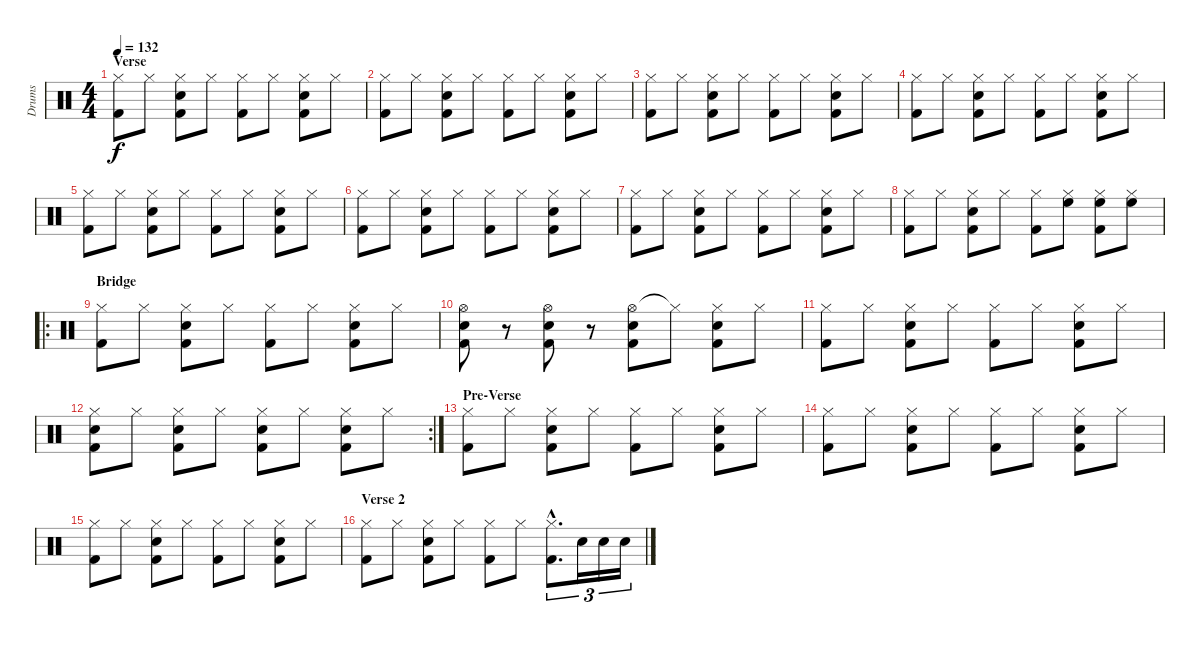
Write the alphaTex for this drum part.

\track ("Drums" "Drums") {instrument percussion}
\staff {score}
\articulation defaults
\ts (4 4)
\section ("" "Verse")
\tempo 132
\clef neutral
\ks c
("Hi-Hat (closed)" "Kick (hit) 2").8{dy f} "Hi-Hat (closed)".8 ("Hi-Hat (closed)" "Snare (hit) 2" "Kick (hit) 2").8 "Hi-Hat (closed)".8 ("Hi-Hat (closed)" "Kick (hit) 2").8 "Hi-Hat (closed)".8 ("Hi-Hat (closed)" "Snare (hit) 2" "Kick (hit) 2").8 "Hi-Hat (closed)".8 |
("Hi-Hat (closed)" "Kick (hit) 2").8 "Hi-Hat (closed)".8 ("Hi-Hat (closed)" "Snare (hit) 2" "Kick (hit) 2").8 "Hi-Hat (closed)".8 ("Hi-Hat (closed)" "Kick (hit) 2").8 "Hi-Hat (closed)".8 ("Hi-Hat (closed)" "Snare (hit) 2" "Kick (hit) 2").8 "Hi-Hat (closed)".8 |
("Hi-Hat (closed)" "Kick (hit) 2").8 "Hi-Hat (closed)".8 ("Hi-Hat (closed)" "Snare (hit) 2" "Kick (hit) 2").8 "Hi-Hat (closed)".8 ("Hi-Hat (closed)" "Kick (hit) 2").8 "Hi-Hat (closed)".8 ("Hi-Hat (closed)" "Snare (hit) 2" "Kick (hit) 2").8 "Hi-Hat (closed)".8 |
("Hi-Hat (closed)" "Kick (hit) 2").8 "Hi-Hat (closed)".8 ("Hi-Hat (closed)" "Snare (hit) 2" "Kick (hit) 2").8 "Hi-Hat (closed)".8 ("Hi-Hat (closed)" "Kick (hit) 2").8 "Hi-Hat (closed)".8 ("Hi-Hat (closed)" "Snare (hit) 2" "Kick (hit) 2").8 "Hi-Hat (closed)".8 |
("Hi-Hat (closed)" "Kick (hit) 2").8 "Hi-Hat (closed)".8 ("Hi-Hat (closed)" "Snare (hit) 2" "Kick (hit) 2").8 "Hi-Hat (closed)".8 ("Hi-Hat (closed)" "Kick (hit) 2").8 "Hi-Hat (closed)".8 ("Hi-Hat (closed)" "Snare (hit) 2" "Kick (hit) 2").8 "Hi-Hat (closed)".8 |
("Hi-Hat (closed)" "Kick (hit) 2").8 "Hi-Hat (closed)".8 ("Hi-Hat (closed)" "Snare (hit) 2" "Kick (hit) 2").8 "Hi-Hat (closed)".8 ("Hi-Hat (closed)" "Kick (hit) 2").8 "Hi-Hat (closed)".8 ("Hi-Hat (closed)" "Snare (hit) 2" "Kick (hit) 2").8 "Hi-Hat (closed)".8 |
("Hi-Hat (closed)" "Kick (hit) 2").8 "Hi-Hat (closed)".8 ("Hi-Hat (closed)" "Snare (hit) 2" "Kick (hit) 2").8 "Hi-Hat (closed)".8 ("Hi-Hat (closed)" "Kick (hit) 2").8 "Hi-Hat (closed)".8 ("Hi-Hat (closed)" "Snare (hit) 2" "Kick (hit) 2").8 "Hi-Hat (closed)".8 |
("Hi-Hat (closed)" "Kick (hit) 2").8 "Hi-Hat (closed)".8 ("Hi-Hat (closed)" "Snare (hit) 2" "Kick (hit) 2").8 "Hi-Hat (closed)".8 ("Hi-Hat (closed)" "Kick (hit) 2").8 ("Hi-Hat (closed)" "High Floor Tom (hit)").8 ("Hi-Hat (closed)" "High Floor Tom (hit)" "Kick (hit) 2").8 ("Hi-Hat (closed)" "High Floor Tom (hit)").8 |
\ro
\section ("" "Bridge")
("Hi-Hat (closed)" "Kick (hit) 2").8 "Hi-Hat (closed)".8 ("Hi-Hat (closed)" "Snare (hit) 2" "Kick (hit) 2").8 "Hi-Hat (closed)".8 ("Hi-Hat (closed)" "Kick (hit) 2").8 "Hi-Hat (closed)".8 ("Hi-Hat (closed)" "Snare (hit) 2" "Kick (hit) 2").8 "Hi-Hat (closed)".8 |
("Hi-Hat (open)" "Snare (hit) 2" "Kick (hit) 2").8 r.8 ("Hi-Hat (open)" "Snare (hit) 2" "Kick (hit) 2").8 r.8 ("Hi-Hat (open)" "Snare (hit) 2" "Kick (hit) 2").8 "Hi-Hat (closed)"{t}.8 ("Hi-Hat (closed)" "Snare (hit) 2" "Kick (hit) 2").8 "Hi-Hat (closed)".8 |
("Hi-Hat (closed)" "Kick (hit) 2").8 "Hi-Hat (closed)".8 ("Hi-Hat (closed)" "Snare (hit) 2" "Kick (hit) 2").8 "Hi-Hat (closed)".8 ("Hi-Hat (closed)" "Kick (hit) 2").8 "Hi-Hat (closed)".8 ("Hi-Hat (closed)" "Snare (hit) 2" "Kick (hit) 2").8 "Hi-Hat (closed)".8 |
\rc 2
("Hi-Hat (closed)" "Snare (hit) 2" "Kick (hit) 2").8 "Hi-Hat (closed)".8 ("Hi-Hat (closed)" "Snare (hit) 2" "Kick (hit) 2").8 "Hi-Hat (closed)".8 ("Hi-Hat (closed)" "Snare (hit) 2" "Kick (hit) 2").8 "Hi-Hat (closed)".8 ("Hi-Hat (closed)" "Snare (hit) 2" "Kick (hit) 2").8 "Hi-Hat (closed)".8 |
\section ("" "Pre-Verse")
("Hi-Hat (closed)" "Kick (hit) 2").8 "Hi-Hat (closed)".8 ("Hi-Hat (closed)" "Snare (hit) 2" "Kick (hit) 2").8 "Hi-Hat (closed)".8 ("Hi-Hat (closed)" "Kick (hit) 2").8 "Hi-Hat (closed)".8 ("Hi-Hat (closed)" "Snare (hit) 2" "Kick (hit) 2").8 "Hi-Hat (closed)".8 |
("Hi-Hat (closed)" "Kick (hit) 2").8 "Hi-Hat (closed)".8 ("Hi-Hat (closed)" "Snare (hit) 2" "Kick (hit) 2").8 "Hi-Hat (closed)".8 ("Hi-Hat (closed)" "Kick (hit) 2").8 "Hi-Hat (closed)".8 ("Hi-Hat (closed)" "Snare (hit) 2" "Kick (hit) 2").8 "Hi-Hat (closed)".8 |
("Hi-Hat (closed)" "Kick (hit) 2").8 "Hi-Hat (closed)".8 ("Hi-Hat (closed)" "Snare (hit) 2" "Kick (hit) 2").8 "Hi-Hat (closed)".8 ("Hi-Hat (closed)" "Kick (hit) 2").8 "Hi-Hat (closed)".8 ("Hi-Hat (closed)" "Snare (hit) 2" "Kick (hit) 2").8 "Hi-Hat (closed)".8 |
\section ("" "Verse 2")
("Hi-Hat (closed)" "Kick (hit) 2").8 "Hi-Hat (closed)".8 ("Hi-Hat (closed)" "Snare (hit) 2" "Kick (hit) 2").8 "Hi-Hat (closed)".8 ("Hi-Hat (closed)" "Kick (hit) 2").8 "Hi-Hat (closed)".8 ("Hi-Hat (closed)"{hac} "Kick (hit) 2"{hac}).8{d tu (3 2)} "Snare (hit) 2".16{tu (3 2)} "Snare (hit) 2".16{tu (3 2)} "Snare (hit) 2".16{tu (3 2)}
